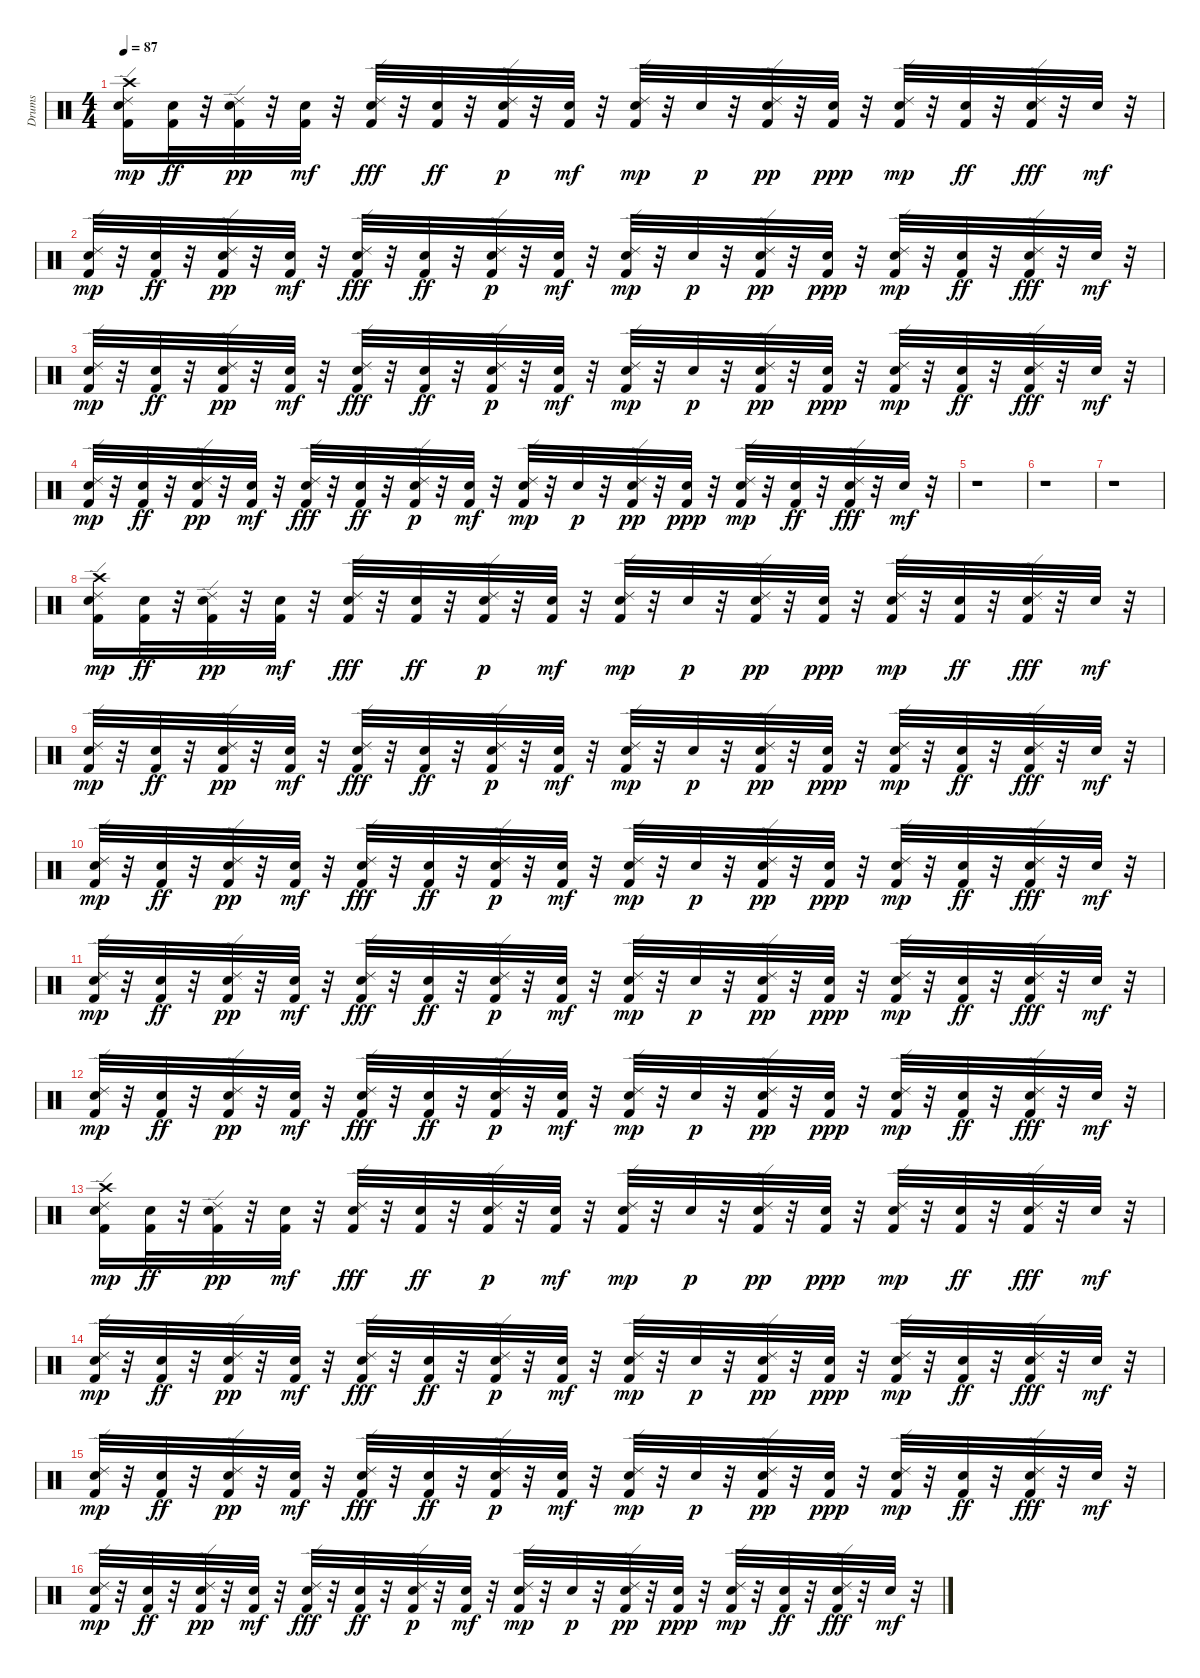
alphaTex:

\track ("Drums" "Drums") {instrument percussion}
\staff {score}
\articulation defaults
\ts (4 4)
\tempo 87
\clef neutral
\ks c
("Crash high (hit)" "Ride (edge) 2" "Kick (hit) 2" "Snare (hit) 2").16{dy mp} ("Snare (hit) 2" "Kick (hit) 2").32{dy ff} r.32 ("Ride (edge) 2" "Kick (hit) 2" "Snare (hit) 2").32{dy pp} r.32 ("Snare (hit) 2" "Kick (hit) 2").32{dy mf} r.32 ("Ride (edge) 2" "Kick (hit) 2" "Snare (hit) 2").32{dy fff} r.32 ("Kick (hit) 2" "Snare (hit) 2").32{dy ff} r.32 ("Ride (edge) 2" "Kick (hit) 2" "Snare (hit) 2").32{dy p} r.32 ("Kick (hit) 2" "Snare (hit) 2").32{dy mf} r.32 ("Ride (edge) 2" "Kick (hit) 2" "Snare (hit) 2").32{dy mp} r.32 "Snare (hit) 2".32{dy p} r.32 ("Ride (edge) 2" "Kick (hit) 2" "Snare (hit) 2").32{dy pp} r.32 ("Snare (hit) 2" "Kick (hit) 2").32{dy ppp} r.32 ("Ride (edge) 2" "Snare (hit) 2" "Kick (hit) 2").32{dy mp} r.32 ("Kick (hit) 2" "Snare (hit) 2").32{dy ff} r.32 ("Ride (edge) 2" "Kick (hit) 2" "Snare (hit) 2").32{dy fff} r.32 "Snare (hit) 2".32{dy mf} r.32 |
("Ride (edge) 2" "Kick (hit) 2" "Snare (hit) 2").32{dy mp} r.32 ("Snare (hit) 2" "Kick (hit) 2").32{dy ff} r.32 ("Ride (edge) 2" "Kick (hit) 2" "Snare (hit) 2").32{dy pp} r.32 ("Snare (hit) 2" "Kick (hit) 2").32{dy mf} r.32 ("Ride (edge) 2" "Kick (hit) 2" "Snare (hit) 2").32{dy fff} r.32 ("Kick (hit) 2" "Snare (hit) 2").32{dy ff} r.32 ("Ride (edge) 2" "Kick (hit) 2" "Snare (hit) 2").32{dy p} r.32 ("Kick (hit) 2" "Snare (hit) 2").32{dy mf} r.32 ("Ride (edge) 2" "Kick (hit) 2" "Snare (hit) 2").32{dy mp} r.32 "Snare (hit) 2".32{dy p} r.32 ("Ride (edge) 2" "Kick (hit) 2" "Snare (hit) 2").32{dy pp} r.32 ("Snare (hit) 2" "Kick (hit) 2").32{dy ppp} r.32 ("Ride (edge) 2" "Snare (hit) 2" "Kick (hit) 2").32{dy mp} r.32 ("Kick (hit) 2" "Snare (hit) 2").32{dy ff} r.32 ("Ride (edge) 2" "Kick (hit) 2" "Snare (hit) 2").32{dy fff} r.32 "Snare (hit) 2".32{dy mf} r.32 |
("Ride (edge) 2" "Kick (hit) 2" "Snare (hit) 2").32{dy mp} r.32 ("Snare (hit) 2" "Kick (hit) 2").32{dy ff} r.32 ("Ride (edge) 2" "Kick (hit) 2" "Snare (hit) 2").32{dy pp} r.32 ("Snare (hit) 2" "Kick (hit) 2").32{dy mf} r.32 ("Ride (edge) 2" "Kick (hit) 2" "Snare (hit) 2").32{dy fff} r.32 ("Kick (hit) 2" "Snare (hit) 2").32{dy ff} r.32 ("Ride (edge) 2" "Kick (hit) 2" "Snare (hit) 2").32{dy p} r.32 ("Kick (hit) 2" "Snare (hit) 2").32{dy mf} r.32 ("Ride (edge) 2" "Kick (hit) 2" "Snare (hit) 2").32{dy mp} r.32 "Snare (hit) 2".32{dy p} r.32 ("Ride (edge) 2" "Kick (hit) 2" "Snare (hit) 2").32{dy pp} r.32 ("Snare (hit) 2" "Kick (hit) 2").32{dy ppp} r.32 ("Ride (edge) 2" "Snare (hit) 2" "Kick (hit) 2").32{dy mp} r.32 ("Kick (hit) 2" "Snare (hit) 2").32{dy ff} r.32 ("Ride (edge) 2" "Kick (hit) 2" "Snare (hit) 2").32{dy fff} r.32 "Snare (hit) 2".32{dy mf} r.32 |
("Ride (edge) 2" "Kick (hit) 2" "Snare (hit) 2").32{dy mp} r.32 ("Snare (hit) 2" "Kick (hit) 2").32{dy ff} r.32 ("Ride (edge) 2" "Kick (hit) 2" "Snare (hit) 2").32{dy pp} r.32 ("Snare (hit) 2" "Kick (hit) 2").32{dy mf} r.32 ("Ride (edge) 2" "Kick (hit) 2" "Snare (hit) 2").32{dy fff} r.32 ("Kick (hit) 2" "Snare (hit) 2").32{dy ff} r.32 ("Ride (edge) 2" "Kick (hit) 2" "Snare (hit) 2").32{dy p} r.32 ("Kick (hit) 2" "Snare (hit) 2").32{dy mf} r.32 ("Ride (edge) 2" "Kick (hit) 2" "Snare (hit) 2").32{dy mp} r.32 "Snare (hit) 2".32{dy p} r.32 ("Ride (edge) 2" "Kick (hit) 2" "Snare (hit) 2").32{dy pp} r.32 ("Snare (hit) 2" "Kick (hit) 2").32{dy ppp} r.32 ("Ride (edge) 2" "Snare (hit) 2" "Kick (hit) 2").32{dy mp} r.32 ("Kick (hit) 2" "Snare (hit) 2").32{dy ff} r.32 ("Ride (edge) 2" "Kick (hit) 2" "Snare (hit) 2").32{dy fff} r.32 "Snare (hit) 2".32{dy mf} r.32 |
r.1 |
r.1 |
r.1 |
("Crash high (hit)" "Ride (edge) 2" "Kick (hit) 2" "Snare (hit) 2").16{dy mp} ("Snare (hit) 2" "Kick (hit) 2").32{dy ff} r.32 ("Ride (edge) 2" "Kick (hit) 2" "Snare (hit) 2").32{dy pp} r.32 ("Snare (hit) 2" "Kick (hit) 2").32{dy mf} r.32 ("Ride (edge) 2" "Kick (hit) 2" "Snare (hit) 2").32{dy fff} r.32 ("Kick (hit) 2" "Snare (hit) 2").32{dy ff} r.32 ("Ride (edge) 2" "Kick (hit) 2" "Snare (hit) 2").32{dy p} r.32 ("Kick (hit) 2" "Snare (hit) 2").32{dy mf} r.32 ("Ride (edge) 2" "Kick (hit) 2" "Snare (hit) 2").32{dy mp} r.32 "Snare (hit) 2".32{dy p} r.32 ("Ride (edge) 2" "Kick (hit) 2" "Snare (hit) 2").32{dy pp} r.32 ("Snare (hit) 2" "Kick (hit) 2").32{dy ppp} r.32 ("Ride (edge) 2" "Snare (hit) 2" "Kick (hit) 2").32{dy mp} r.32 ("Kick (hit) 2" "Snare (hit) 2").32{dy ff} r.32 ("Ride (edge) 2" "Kick (hit) 2" "Snare (hit) 2").32{dy fff} r.32 "Snare (hit) 2".32{dy mf} r.32 |
("Ride (edge) 2" "Kick (hit) 2" "Snare (hit) 2").32{dy mp} r.32 ("Snare (hit) 2" "Kick (hit) 2").32{dy ff} r.32 ("Ride (edge) 2" "Kick (hit) 2" "Snare (hit) 2").32{dy pp} r.32 ("Snare (hit) 2" "Kick (hit) 2").32{dy mf} r.32 ("Ride (edge) 2" "Kick (hit) 2" "Snare (hit) 2").32{dy fff} r.32 ("Kick (hit) 2" "Snare (hit) 2").32{dy ff} r.32 ("Ride (edge) 2" "Kick (hit) 2" "Snare (hit) 2").32{dy p} r.32 ("Kick (hit) 2" "Snare (hit) 2").32{dy mf} r.32 ("Ride (edge) 2" "Kick (hit) 2" "Snare (hit) 2").32{dy mp} r.32 "Snare (hit) 2".32{dy p} r.32 ("Ride (edge) 2" "Kick (hit) 2" "Snare (hit) 2").32{dy pp} r.32 ("Snare (hit) 2" "Kick (hit) 2").32{dy ppp} r.32 ("Ride (edge) 2" "Snare (hit) 2" "Kick (hit) 2").32{dy mp} r.32 ("Kick (hit) 2" "Snare (hit) 2").32{dy ff} r.32 ("Ride (edge) 2" "Kick (hit) 2" "Snare (hit) 2").32{dy fff} r.32 "Snare (hit) 2".32{dy mf} r.32 |
("Ride (edge) 2" "Kick (hit) 2" "Snare (hit) 2").32{dy mp} r.32 ("Snare (hit) 2" "Kick (hit) 2").32{dy ff} r.32 ("Ride (edge) 2" "Kick (hit) 2" "Snare (hit) 2").32{dy pp} r.32 ("Snare (hit) 2" "Kick (hit) 2").32{dy mf} r.32 ("Ride (edge) 2" "Kick (hit) 2" "Snare (hit) 2").32{dy fff} r.32 ("Kick (hit) 2" "Snare (hit) 2").32{dy ff} r.32 ("Ride (edge) 2" "Kick (hit) 2" "Snare (hit) 2").32{dy p} r.32 ("Kick (hit) 2" "Snare (hit) 2").32{dy mf} r.32 ("Ride (edge) 2" "Kick (hit) 2" "Snare (hit) 2").32{dy mp} r.32 "Snare (hit) 2".32{dy p} r.32 ("Ride (edge) 2" "Kick (hit) 2" "Snare (hit) 2").32{dy pp} r.32 ("Snare (hit) 2" "Kick (hit) 2").32{dy ppp} r.32 ("Ride (edge) 2" "Snare (hit) 2" "Kick (hit) 2").32{dy mp} r.32 ("Kick (hit) 2" "Snare (hit) 2").32{dy ff} r.32 ("Ride (edge) 2" "Kick (hit) 2" "Snare (hit) 2").32{dy fff} r.32 "Snare (hit) 2".32{dy mf} r.32 |
("Ride (edge) 2" "Kick (hit) 2" "Snare (hit) 2").32{dy mp} r.32 ("Snare (hit) 2" "Kick (hit) 2").32{dy ff} r.32 ("Ride (edge) 2" "Kick (hit) 2" "Snare (hit) 2").32{dy pp} r.32 ("Snare (hit) 2" "Kick (hit) 2").32{dy mf} r.32 ("Ride (edge) 2" "Kick (hit) 2" "Snare (hit) 2").32{dy fff} r.32 ("Kick (hit) 2" "Snare (hit) 2").32{dy ff} r.32 ("Ride (edge) 2" "Kick (hit) 2" "Snare (hit) 2").32{dy p} r.32 ("Kick (hit) 2" "Snare (hit) 2").32{dy mf} r.32 ("Ride (edge) 2" "Kick (hit) 2" "Snare (hit) 2").32{dy mp} r.32 "Snare (hit) 2".32{dy p} r.32 ("Ride (edge) 2" "Kick (hit) 2" "Snare (hit) 2").32{dy pp} r.32 ("Snare (hit) 2" "Kick (hit) 2").32{dy ppp} r.32 ("Ride (edge) 2" "Snare (hit) 2" "Kick (hit) 2").32{dy mp} r.32 ("Kick (hit) 2" "Snare (hit) 2").32{dy ff} r.32 ("Ride (edge) 2" "Kick (hit) 2" "Snare (hit) 2").32{dy fff} r.32 "Snare (hit) 2".32{dy mf} r.32 |
("Ride (edge) 2" "Kick (hit) 2" "Snare (hit) 2").32{dy mp} r.32 ("Snare (hit) 2" "Kick (hit) 2").32{dy ff} r.32 ("Ride (edge) 2" "Kick (hit) 2" "Snare (hit) 2").32{dy pp} r.32 ("Snare (hit) 2" "Kick (hit) 2").32{dy mf} r.32 ("Ride (edge) 2" "Kick (hit) 2" "Snare (hit) 2").32{dy fff} r.32 ("Kick (hit) 2" "Snare (hit) 2").32{dy ff} r.32 ("Ride (edge) 2" "Kick (hit) 2" "Snare (hit) 2").32{dy p} r.32 ("Kick (hit) 2" "Snare (hit) 2").32{dy mf} r.32 ("Ride (edge) 2" "Kick (hit) 2" "Snare (hit) 2").32{dy mp} r.32 "Snare (hit) 2".32{dy p} r.32 ("Ride (edge) 2" "Kick (hit) 2" "Snare (hit) 2").32{dy pp} r.32 ("Snare (hit) 2" "Kick (hit) 2").32{dy ppp} r.32 ("Ride (edge) 2" "Snare (hit) 2" "Kick (hit) 2").32{dy mp} r.32 ("Kick (hit) 2" "Snare (hit) 2").32{dy ff} r.32 ("Ride (edge) 2" "Kick (hit) 2" "Snare (hit) 2").32{dy fff} r.32 "Snare (hit) 2".32{dy mf} r.32 |
("Crash high (hit)" "Ride (edge) 2" "Kick (hit) 2" "Snare (hit) 2").16{dy mp} ("Snare (hit) 2" "Kick (hit) 2").32{dy ff} r.32 ("Ride (edge) 2" "Kick (hit) 2" "Snare (hit) 2").32{dy pp} r.32 ("Snare (hit) 2" "Kick (hit) 2").32{dy mf} r.32 ("Ride (edge) 2" "Kick (hit) 2" "Snare (hit) 2").32{dy fff} r.32 ("Kick (hit) 2" "Snare (hit) 2").32{dy ff} r.32 ("Ride (edge) 2" "Kick (hit) 2" "Snare (hit) 2").32{dy p} r.32 ("Kick (hit) 2" "Snare (hit) 2").32{dy mf} r.32 ("Ride (edge) 2" "Kick (hit) 2" "Snare (hit) 2").32{dy mp} r.32 "Snare (hit) 2".32{dy p} r.32 ("Ride (edge) 2" "Kick (hit) 2" "Snare (hit) 2").32{dy pp} r.32 ("Snare (hit) 2" "Kick (hit) 2").32{dy ppp} r.32 ("Ride (edge) 2" "Snare (hit) 2" "Kick (hit) 2").32{dy mp} r.32 ("Kick (hit) 2" "Snare (hit) 2").32{dy ff} r.32 ("Ride (edge) 2" "Kick (hit) 2" "Snare (hit) 2").32{dy fff} r.32 "Snare (hit) 2".32{dy mf} r.32 |
("Ride (edge) 2" "Kick (hit) 2" "Snare (hit) 2").32{dy mp} r.32 ("Snare (hit) 2" "Kick (hit) 2").32{dy ff} r.32 ("Ride (edge) 2" "Kick (hit) 2" "Snare (hit) 2").32{dy pp} r.32 ("Snare (hit) 2" "Kick (hit) 2").32{dy mf} r.32 ("Ride (edge) 2" "Kick (hit) 2" "Snare (hit) 2").32{dy fff} r.32 ("Kick (hit) 2" "Snare (hit) 2").32{dy ff} r.32 ("Ride (edge) 2" "Kick (hit) 2" "Snare (hit) 2").32{dy p} r.32 ("Kick (hit) 2" "Snare (hit) 2").32{dy mf} r.32 ("Ride (edge) 2" "Kick (hit) 2" "Snare (hit) 2").32{dy mp} r.32 "Snare (hit) 2".32{dy p} r.32 ("Ride (edge) 2" "Kick (hit) 2" "Snare (hit) 2").32{dy pp} r.32 ("Snare (hit) 2" "Kick (hit) 2").32{dy ppp} r.32 ("Ride (edge) 2" "Snare (hit) 2" "Kick (hit) 2").32{dy mp} r.32 ("Kick (hit) 2" "Snare (hit) 2").32{dy ff} r.32 ("Ride (edge) 2" "Kick (hit) 2" "Snare (hit) 2").32{dy fff} r.32 "Snare (hit) 2".32{dy mf} r.32 |
("Ride (edge) 2" "Kick (hit) 2" "Snare (hit) 2").32{dy mp} r.32 ("Snare (hit) 2" "Kick (hit) 2").32{dy ff} r.32 ("Ride (edge) 2" "Kick (hit) 2" "Snare (hit) 2").32{dy pp} r.32 ("Snare (hit) 2" "Kick (hit) 2").32{dy mf} r.32 ("Ride (edge) 2" "Kick (hit) 2" "Snare (hit) 2").32{dy fff} r.32 ("Kick (hit) 2" "Snare (hit) 2").32{dy ff} r.32 ("Ride (edge) 2" "Kick (hit) 2" "Snare (hit) 2").32{dy p} r.32 ("Kick (hit) 2" "Snare (hit) 2").32{dy mf} r.32 ("Ride (edge) 2" "Kick (hit) 2" "Snare (hit) 2").32{dy mp} r.32 "Snare (hit) 2".32{dy p} r.32 ("Ride (edge) 2" "Kick (hit) 2" "Snare (hit) 2").32{dy pp} r.32 ("Snare (hit) 2" "Kick (hit) 2").32{dy ppp} r.32 ("Ride (edge) 2" "Snare (hit) 2" "Kick (hit) 2").32{dy mp} r.32 ("Kick (hit) 2" "Snare (hit) 2").32{dy ff} r.32 ("Ride (edge) 2" "Kick (hit) 2" "Snare (hit) 2").32{dy fff} r.32 "Snare (hit) 2".32{dy mf} r.32 |
("Ride (edge) 2" "Kick (hit) 2" "Snare (hit) 2").32{dy mp} r.32 ("Snare (hit) 2" "Kick (hit) 2").32{dy ff} r.32 ("Ride (edge) 2" "Kick (hit) 2" "Snare (hit) 2").32{dy pp} r.32 ("Snare (hit) 2" "Kick (hit) 2").32{dy mf} r.32 ("Ride (edge) 2" "Kick (hit) 2" "Snare (hit) 2").32{dy fff} r.32 ("Kick (hit) 2" "Snare (hit) 2").32{dy ff} r.32 ("Ride (edge) 2" "Kick (hit) 2" "Snare (hit) 2").32{dy p} r.32 ("Kick (hit) 2" "Snare (hit) 2").32{dy mf} r.32 ("Ride (edge) 2" "Kick (hit) 2" "Snare (hit) 2").32{dy mp} r.32 "Snare (hit) 2".32{dy p} r.32 ("Ride (edge) 2" "Kick (hit) 2" "Snare (hit) 2").32{dy pp} r.32 ("Snare (hit) 2" "Kick (hit) 2").32{dy ppp} r.32 ("Ride (edge) 2" "Snare (hit) 2" "Kick (hit) 2").32{dy mp} r.32 ("Kick (hit) 2" "Snare (hit) 2").32{dy ff} r.32 ("Ride (edge) 2" "Kick (hit) 2" "Snare (hit) 2").32{dy fff} r.32 "Snare (hit) 2".32{dy mf} r.32
